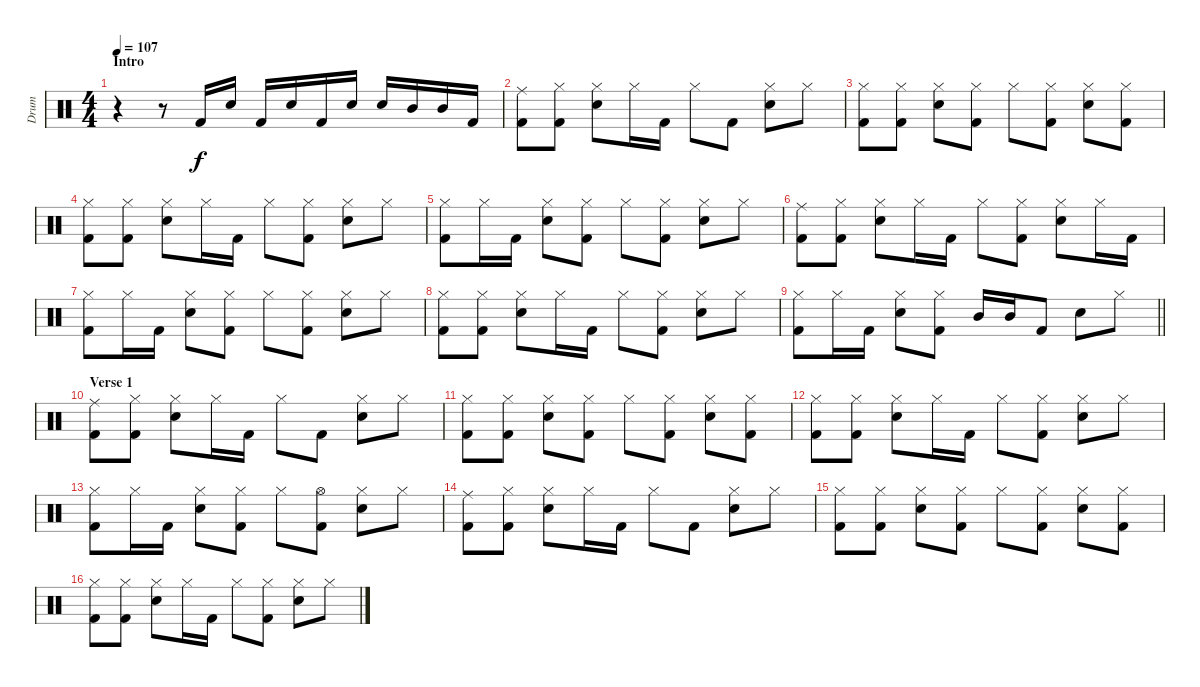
\track ("Drum" "Drum") {instrument percussion}
\staff {score}
\articulation defaults
\ts (4 4)
\section ("" "Intro")
\tempo 107
\clef neutral
\ks c
r.4{dy f} r.8 "Kick (hit) 2".16 "Snare (hit) 2".16 "Kick (hit) 2".16 "Snare (hit) 2".16 "Kick (hit) 2".16 "Snare (hit) 2".16 "Snare (hit) 2".16 "Mid Tom (hit)".16 "Mid Tom (hit)".16 "Kick (hit) 2".16 |
("Ride (middle)" "Kick (hit) 2").8 ("Hi-Hat (closed)" "Kick (hit) 2").8 ("Hi-Hat (closed)" "Snare (hit) 2").8 "Hi-Hat (closed)".16 "Kick (hit) 2".16 "Hi-Hat (closed)".8 "Kick (hit) 2".8 ("Hi-Hat (closed)" "Snare (hit) 2").8 "Hi-Hat (closed)".8 |
("Hi-Hat (closed)" "Kick (hit) 2").8 ("Hi-Hat (closed)" "Kick (hit) 2").8 ("Hi-Hat (closed)" "Snare (hit) 2").8 ("Hi-Hat (closed)" "Kick (hit) 2").8 "Hi-Hat (closed)".8 ("Hi-Hat (closed)" "Kick (hit) 2").8 ("Hi-Hat (closed)" "Snare (hit) 2").8 ("Hi-Hat (closed)" "Kick (hit) 2").8 |
("Hi-Hat (closed)" "Kick (hit) 2").8 ("Hi-Hat (closed)" "Kick (hit) 2").8 ("Hi-Hat (closed)" "Snare (hit) 2").8 "Hi-Hat (closed)".16 "Kick (hit) 2".16 "Hi-Hat (closed)".8 ("Hi-Hat (closed)" "Kick (hit) 2").8 ("Hi-Hat (closed)" "Snare (hit) 2").8 "Hi-Hat (closed)".8 |
("Hi-Hat (closed)" "Kick (hit) 2").8 "Hi-Hat (closed)".16 "Kick (hit) 2".16 ("Hi-Hat (closed)" "Snare (hit) 2").8 ("Hi-Hat (closed)" "Kick (hit) 2").8 "Hi-Hat (closed)".8 ("Hi-Hat (closed)" "Kick (hit) 2").8 ("Hi-Hat (closed)" "Snare (hit) 2").8 "Hi-Hat (closed)".8 |
("Ride (middle)" "Kick (hit) 2").8 ("Hi-Hat (closed)" "Kick (hit) 2").8 ("Hi-Hat (closed)" "Snare (hit) 2").8 "Hi-Hat (closed)".16 "Kick (hit) 2".16 "Hi-Hat (closed)".8 ("Hi-Hat (closed)" "Kick (hit) 2").8 ("Hi-Hat (closed)" "Snare (hit) 2").8 "Hi-Hat (closed)".16 "Kick (hit) 2".16 |
("Hi-Hat (closed)" "Kick (hit) 2").8 "Hi-Hat (closed)".16 "Kick (hit) 2".16 ("Hi-Hat (closed)" "Snare (hit) 2").8 ("Hi-Hat (closed)" "Kick (hit) 2").8 "Hi-Hat (closed)".8 ("Hi-Hat (closed)" "Kick (hit) 2").8 ("Hi-Hat (closed)" "Snare (hit) 2").8 "Hi-Hat (closed)".8 |
("Hi-Hat (closed)" "Kick (hit) 2").8 ("Hi-Hat (closed)" "Kick (hit) 2").8 ("Hi-Hat (closed)" "Snare (hit) 2").8 "Hi-Hat (closed)".16 "Kick (hit) 2".16 "Hi-Hat (closed)".8 ("Hi-Hat (closed)" "Kick (hit) 2").8 ("Hi-Hat (closed)" "Snare (hit) 2").8 "Hi-Hat (closed)".8 |
\barLineRight lightlight
("Hi-Hat (closed)" "Kick (hit) 2").8 "Hi-Hat (closed)".16 "Kick (hit) 2".16 ("Hi-Hat (closed)" "Snare (hit) 2").8 ("Hi-Hat (closed)" "Kick (hit) 2").8 "Mid Tom (hit)".16 "Mid Tom (hit)".16 "Kick (hit) 2".8 "Snare (hit) 2".8 "Hi-Hat (closed)".8 |
\section ("" "Verse 1")
("Ride (middle)" "Kick (hit) 2").8 ("Hi-Hat (closed)" "Kick (hit) 2").8 ("Hi-Hat (closed)" "Snare (hit) 2").8 "Hi-Hat (closed)".16 "Kick (hit) 2".16 "Hi-Hat (closed)".8 "Kick (hit) 2".8 ("Hi-Hat (closed)" "Snare (hit) 2").8 "Hi-Hat (closed)".8 |
("Hi-Hat (closed)" "Kick (hit) 2").8 ("Hi-Hat (closed)" "Kick (hit) 2").8 ("Hi-Hat (closed)" "Snare (hit) 2").8 ("Hi-Hat (closed)" "Kick (hit) 2").8 "Hi-Hat (closed)".8 ("Hi-Hat (closed)" "Kick (hit) 2").8 ("Hi-Hat (closed)" "Snare (hit) 2").8 ("Hi-Hat (closed)" "Kick (hit) 2").8 |
("Hi-Hat (closed)" "Kick (hit) 2").8 ("Hi-Hat (closed)" "Kick (hit) 2").8 ("Hi-Hat (closed)" "Snare (hit) 2").8 "Hi-Hat (closed)".16 "Kick (hit) 2".16 "Hi-Hat (closed)".8 ("Hi-Hat (closed)" "Kick (hit) 2").8 ("Hi-Hat (closed)" "Snare (hit) 2").8 "Hi-Hat (closed)".8 |
("Hi-Hat (closed)" "Kick (hit) 2").8 "Hi-Hat (closed)".16 "Kick (hit) 2".16 ("Hi-Hat (closed)" "Snare (hit) 2").8 ("Hi-Hat (closed)" "Kick (hit) 2").8 "Hi-Hat (closed)".8 ("Hi-Hat (open)" "Kick (hit) 2").8 ("Hi-Hat (closed)" "Snare (hit) 2").8 "Hi-Hat (closed)".8 |
("Ride (middle)" "Kick (hit) 2").8 ("Hi-Hat (closed)" "Kick (hit) 2").8 ("Hi-Hat (closed)" "Snare (hit) 2").8 "Hi-Hat (closed)".16 "Kick (hit) 2".16 "Hi-Hat (closed)".8 "Kick (hit) 2".8 ("Hi-Hat (closed)" "Snare (hit) 2").8 "Hi-Hat (closed)".8 |
("Hi-Hat (closed)" "Kick (hit) 2").8 ("Hi-Hat (closed)" "Kick (hit) 2").8 ("Hi-Hat (closed)" "Snare (hit) 2").8 ("Hi-Hat (closed)" "Kick (hit) 2").8 "Hi-Hat (closed)".8 ("Hi-Hat (closed)" "Kick (hit) 2").8 ("Hi-Hat (closed)" "Snare (hit) 2").8 ("Hi-Hat (closed)" "Kick (hit) 2").8 |
("Hi-Hat (closed)" "Kick (hit) 2").8 ("Hi-Hat (closed)" "Kick (hit) 2").8 ("Hi-Hat (closed)" "Snare (hit) 2").8 "Hi-Hat (closed)".16 "Kick (hit) 2".16 "Hi-Hat (closed)".8 ("Hi-Hat (closed)" "Kick (hit) 2").8 ("Hi-Hat (closed)" "Snare (hit) 2").8 "Hi-Hat (closed)".8
